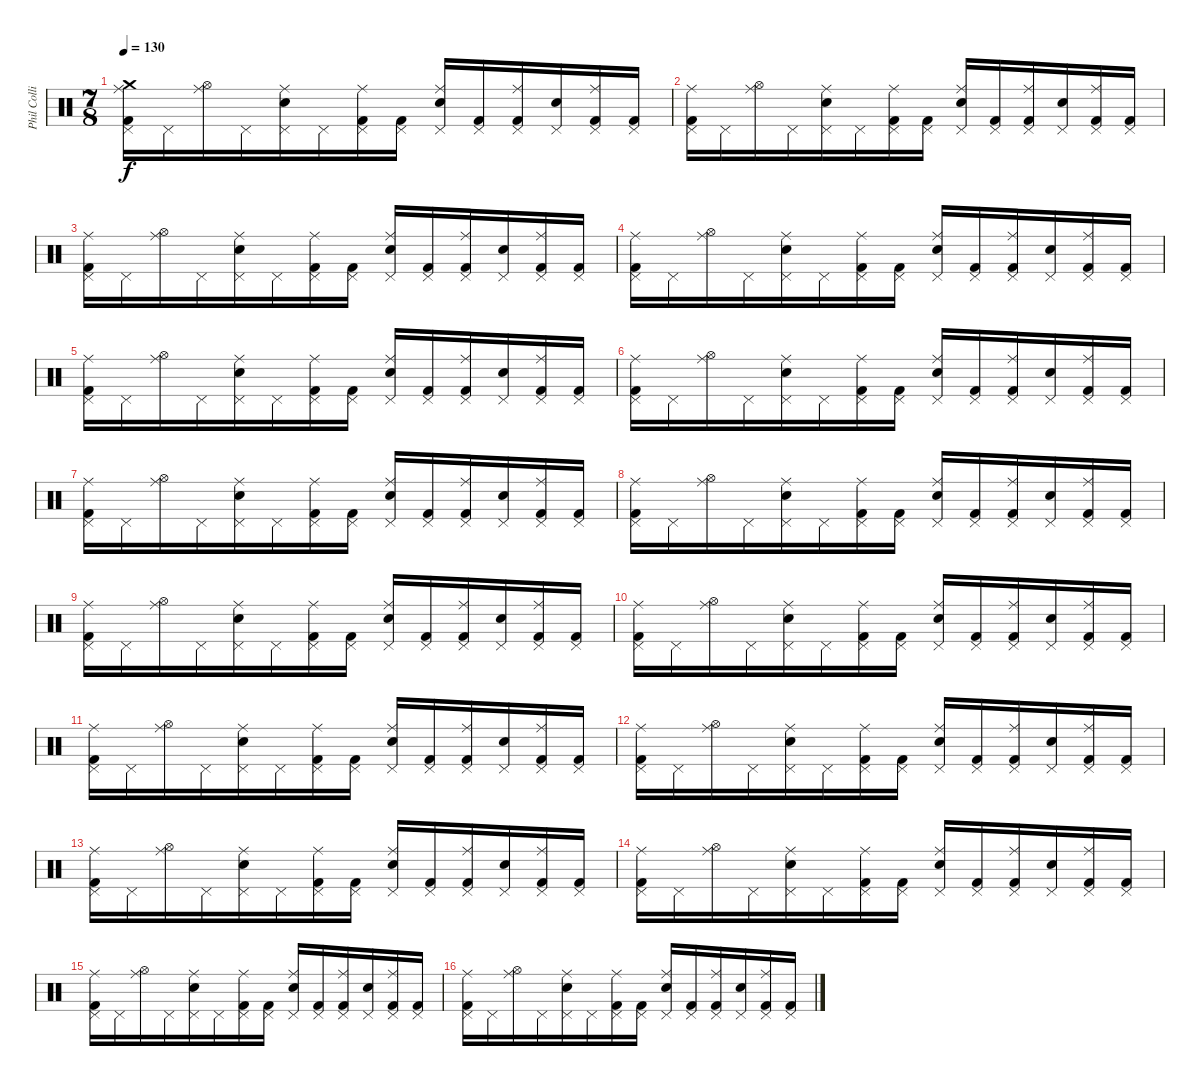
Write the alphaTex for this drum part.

\track ("Phil Collins (drums)" "Phil Colli") {instrument percussion}
\staff {score}
\articulation defaults
\ts (7 8)
\tempo 130
\clef neutral
\ks c
("Crash medium (hit)" "Ride (middle)" "Pedal Hi-Hat (hit)" "Kick (hit) 2").16{dy f} "Pedal Hi-Hat (hit)".16 ("Ride (middle)" "Hi-Hat (open)").16 "Pedal Hi-Hat (hit)".16 ("Ride (middle)" "Pedal Hi-Hat (hit)" "Electric Snare (hit)").16 "Pedal Hi-Hat (hit)".16 ("Ride (middle)" "Pedal Hi-Hat (hit)" "Kick (hit) 2").16 ("Pedal Hi-Hat (hit)" "Kick (hit) 2").16 ("Ride (middle)" "Pedal Hi-Hat (hit)" "Electric Snare (hit)").16 ("Pedal Hi-Hat (hit)" "Kick (hit) 2").16 ("Ride (middle)" "Pedal Hi-Hat (hit)" "Kick (hit) 2").16 ("Pedal Hi-Hat (hit)" "Electric Snare (hit)").16 ("Ride (middle)" "Pedal Hi-Hat (hit)" "Kick (hit) 2").16 ("Pedal Hi-Hat (hit)" "Kick (hit) 2").16 |
("Ride (middle)" "Pedal Hi-Hat (hit)" "Kick (hit) 2").16 "Pedal Hi-Hat (hit)".16 ("Ride (middle)" "Hi-Hat (open)").16 "Pedal Hi-Hat (hit)".16 ("Ride (middle)" "Pedal Hi-Hat (hit)" "Electric Snare (hit)").16 "Pedal Hi-Hat (hit)".16 ("Ride (middle)" "Pedal Hi-Hat (hit)" "Kick (hit) 2").16 ("Pedal Hi-Hat (hit)" "Kick (hit) 2").16 ("Ride (middle)" "Pedal Hi-Hat (hit)" "Electric Snare (hit)").16 ("Pedal Hi-Hat (hit)" "Kick (hit) 2").16 ("Ride (middle)" "Pedal Hi-Hat (hit)" "Kick (hit) 2").16 ("Pedal Hi-Hat (hit)" "Electric Snare (hit)").16 ("Ride (middle)" "Pedal Hi-Hat (hit)" "Kick (hit) 2").16 ("Pedal Hi-Hat (hit)" "Kick (hit) 2").16 |
("Ride (middle)" "Pedal Hi-Hat (hit)" "Kick (hit) 2").16 "Pedal Hi-Hat (hit)".16 ("Ride (middle)" "Hi-Hat (open)").16 "Pedal Hi-Hat (hit)".16 ("Ride (middle)" "Pedal Hi-Hat (hit)" "Electric Snare (hit)").16 "Pedal Hi-Hat (hit)".16 ("Ride (middle)" "Pedal Hi-Hat (hit)" "Kick (hit) 2").16 ("Pedal Hi-Hat (hit)" "Kick (hit) 2").16 ("Ride (middle)" "Pedal Hi-Hat (hit)" "Electric Snare (hit)").16 ("Pedal Hi-Hat (hit)" "Kick (hit) 2").16 ("Ride (middle)" "Pedal Hi-Hat (hit)" "Kick (hit) 2").16 ("Pedal Hi-Hat (hit)" "Electric Snare (hit)").16 ("Ride (middle)" "Pedal Hi-Hat (hit)" "Kick (hit) 2").16 ("Pedal Hi-Hat (hit)" "Kick (hit) 2").16 |
("Ride (middle)" "Pedal Hi-Hat (hit)" "Kick (hit) 2").16 "Pedal Hi-Hat (hit)".16 ("Ride (middle)" "Hi-Hat (open)").16 "Pedal Hi-Hat (hit)".16 ("Ride (middle)" "Pedal Hi-Hat (hit)" "Electric Snare (hit)").16 "Pedal Hi-Hat (hit)".16 ("Ride (middle)" "Pedal Hi-Hat (hit)" "Kick (hit) 2").16 ("Pedal Hi-Hat (hit)" "Kick (hit) 2").16 ("Ride (middle)" "Pedal Hi-Hat (hit)" "Electric Snare (hit)").16 ("Pedal Hi-Hat (hit)" "Kick (hit) 2").16 ("Ride (middle)" "Pedal Hi-Hat (hit)" "Kick (hit) 2").16 ("Pedal Hi-Hat (hit)" "Electric Snare (hit)").16 ("Ride (middle)" "Pedal Hi-Hat (hit)" "Kick (hit) 2").16 ("Pedal Hi-Hat (hit)" "Kick (hit) 2").16 |
("Ride (middle)" "Pedal Hi-Hat (hit)" "Kick (hit) 2").16 "Pedal Hi-Hat (hit)".16 ("Ride (middle)" "Hi-Hat (open)").16 "Pedal Hi-Hat (hit)".16 ("Ride (middle)" "Pedal Hi-Hat (hit)" "Electric Snare (hit)").16 "Pedal Hi-Hat (hit)".16 ("Ride (middle)" "Pedal Hi-Hat (hit)" "Kick (hit) 2").16 ("Pedal Hi-Hat (hit)" "Kick (hit) 2").16 ("Ride (middle)" "Pedal Hi-Hat (hit)" "Electric Snare (hit)").16 ("Pedal Hi-Hat (hit)" "Kick (hit) 2").16 ("Ride (middle)" "Pedal Hi-Hat (hit)" "Kick (hit) 2").16 ("Pedal Hi-Hat (hit)" "Electric Snare (hit)").16 ("Ride (middle)" "Pedal Hi-Hat (hit)" "Kick (hit) 2").16 ("Pedal Hi-Hat (hit)" "Kick (hit) 2").16 |
("Ride (middle)" "Pedal Hi-Hat (hit)" "Kick (hit) 2").16 "Pedal Hi-Hat (hit)".16 ("Ride (middle)" "Hi-Hat (open)").16 "Pedal Hi-Hat (hit)".16 ("Ride (middle)" "Pedal Hi-Hat (hit)" "Electric Snare (hit)").16 "Pedal Hi-Hat (hit)".16 ("Ride (middle)" "Pedal Hi-Hat (hit)" "Kick (hit) 2").16 ("Pedal Hi-Hat (hit)" "Kick (hit) 2").16 ("Ride (middle)" "Pedal Hi-Hat (hit)" "Electric Snare (hit)").16 ("Pedal Hi-Hat (hit)" "Kick (hit) 2").16 ("Ride (middle)" "Pedal Hi-Hat (hit)" "Kick (hit) 2").16 ("Pedal Hi-Hat (hit)" "Electric Snare (hit)").16 ("Ride (middle)" "Pedal Hi-Hat (hit)" "Kick (hit) 2").16 ("Pedal Hi-Hat (hit)" "Kick (hit) 2").16 |
("Ride (middle)" "Pedal Hi-Hat (hit)" "Kick (hit) 2").16 "Pedal Hi-Hat (hit)".16 ("Ride (middle)" "Hi-Hat (open)").16 "Pedal Hi-Hat (hit)".16 ("Ride (middle)" "Pedal Hi-Hat (hit)" "Electric Snare (hit)").16 "Pedal Hi-Hat (hit)".16 ("Ride (middle)" "Pedal Hi-Hat (hit)" "Kick (hit) 2").16 ("Pedal Hi-Hat (hit)" "Kick (hit) 2").16 ("Ride (middle)" "Pedal Hi-Hat (hit)" "Electric Snare (hit)").16 ("Pedal Hi-Hat (hit)" "Kick (hit) 2").16 ("Ride (middle)" "Pedal Hi-Hat (hit)" "Kick (hit) 2").16 ("Pedal Hi-Hat (hit)" "Electric Snare (hit)").16 ("Ride (middle)" "Pedal Hi-Hat (hit)" "Kick (hit) 2").16 ("Pedal Hi-Hat (hit)" "Kick (hit) 2").16 |
("Ride (middle)" "Pedal Hi-Hat (hit)" "Kick (hit) 2").16 "Pedal Hi-Hat (hit)".16 ("Ride (middle)" "Hi-Hat (open)").16 "Pedal Hi-Hat (hit)".16 ("Ride (middle)" "Pedal Hi-Hat (hit)" "Electric Snare (hit)").16 "Pedal Hi-Hat (hit)".16 ("Ride (middle)" "Pedal Hi-Hat (hit)" "Kick (hit) 2").16 ("Pedal Hi-Hat (hit)" "Kick (hit) 2").16 ("Ride (middle)" "Pedal Hi-Hat (hit)" "Electric Snare (hit)").16 ("Pedal Hi-Hat (hit)" "Kick (hit) 2").16 ("Ride (middle)" "Pedal Hi-Hat (hit)" "Kick (hit) 2").16 ("Pedal Hi-Hat (hit)" "Electric Snare (hit)").16 ("Ride (middle)" "Pedal Hi-Hat (hit)" "Kick (hit) 2").16 ("Pedal Hi-Hat (hit)" "Kick (hit) 2").16 |
("Ride (middle)" "Pedal Hi-Hat (hit)" "Kick (hit) 2").16 "Pedal Hi-Hat (hit)".16 ("Ride (middle)" "Hi-Hat (open)").16 "Pedal Hi-Hat (hit)".16 ("Ride (middle)" "Pedal Hi-Hat (hit)" "Electric Snare (hit)").16 "Pedal Hi-Hat (hit)".16 ("Ride (middle)" "Pedal Hi-Hat (hit)" "Kick (hit) 2").16 ("Pedal Hi-Hat (hit)" "Kick (hit) 2").16 ("Ride (middle)" "Pedal Hi-Hat (hit)" "Electric Snare (hit)").16 ("Pedal Hi-Hat (hit)" "Kick (hit) 2").16 ("Ride (middle)" "Pedal Hi-Hat (hit)" "Kick (hit) 2").16 ("Pedal Hi-Hat (hit)" "Electric Snare (hit)").16 ("Ride (middle)" "Pedal Hi-Hat (hit)" "Kick (hit) 2").16 ("Pedal Hi-Hat (hit)" "Kick (hit) 2").16 |
("Ride (middle)" "Pedal Hi-Hat (hit)" "Kick (hit) 2").16 "Pedal Hi-Hat (hit)".16 ("Ride (middle)" "Hi-Hat (open)").16 "Pedal Hi-Hat (hit)".16 ("Ride (middle)" "Pedal Hi-Hat (hit)" "Electric Snare (hit)").16 "Pedal Hi-Hat (hit)".16 ("Ride (middle)" "Pedal Hi-Hat (hit)" "Kick (hit) 2").16 ("Pedal Hi-Hat (hit)" "Kick (hit) 2").16 ("Ride (middle)" "Pedal Hi-Hat (hit)" "Electric Snare (hit)").16 ("Pedal Hi-Hat (hit)" "Kick (hit) 2").16 ("Ride (middle)" "Pedal Hi-Hat (hit)" "Kick (hit) 2").16 ("Pedal Hi-Hat (hit)" "Electric Snare (hit)").16 ("Ride (middle)" "Pedal Hi-Hat (hit)" "Kick (hit) 2").16 ("Pedal Hi-Hat (hit)" "Kick (hit) 2").16 |
("Ride (middle)" "Pedal Hi-Hat (hit)" "Kick (hit) 2").16 "Pedal Hi-Hat (hit)".16 ("Ride (middle)" "Hi-Hat (open)").16 "Pedal Hi-Hat (hit)".16 ("Ride (middle)" "Pedal Hi-Hat (hit)" "Electric Snare (hit)").16 "Pedal Hi-Hat (hit)".16 ("Ride (middle)" "Pedal Hi-Hat (hit)" "Kick (hit) 2").16 ("Pedal Hi-Hat (hit)" "Kick (hit) 2").16 ("Ride (middle)" "Pedal Hi-Hat (hit)" "Electric Snare (hit)").16 ("Pedal Hi-Hat (hit)" "Kick (hit) 2").16 ("Ride (middle)" "Pedal Hi-Hat (hit)" "Kick (hit) 2").16 ("Pedal Hi-Hat (hit)" "Electric Snare (hit)").16 ("Ride (middle)" "Pedal Hi-Hat (hit)" "Kick (hit) 2").16 ("Pedal Hi-Hat (hit)" "Kick (hit) 2").16 |
("Ride (middle)" "Pedal Hi-Hat (hit)" "Kick (hit) 2").16 "Pedal Hi-Hat (hit)".16 ("Ride (middle)" "Hi-Hat (open)").16 "Pedal Hi-Hat (hit)".16 ("Ride (middle)" "Pedal Hi-Hat (hit)" "Electric Snare (hit)").16 "Pedal Hi-Hat (hit)".16 ("Ride (middle)" "Pedal Hi-Hat (hit)" "Kick (hit) 2").16 ("Pedal Hi-Hat (hit)" "Kick (hit) 2").16 ("Ride (middle)" "Pedal Hi-Hat (hit)" "Electric Snare (hit)").16 ("Pedal Hi-Hat (hit)" "Kick (hit) 2").16 ("Ride (middle)" "Pedal Hi-Hat (hit)" "Kick (hit) 2").16 ("Pedal Hi-Hat (hit)" "Electric Snare (hit)").16 ("Ride (middle)" "Pedal Hi-Hat (hit)" "Kick (hit) 2").16 ("Pedal Hi-Hat (hit)" "Kick (hit) 2").16 |
("Ride (middle)" "Pedal Hi-Hat (hit)" "Kick (hit) 2").16 "Pedal Hi-Hat (hit)".16 ("Ride (middle)" "Hi-Hat (open)").16 "Pedal Hi-Hat (hit)".16 ("Ride (middle)" "Pedal Hi-Hat (hit)" "Electric Snare (hit)").16 "Pedal Hi-Hat (hit)".16 ("Ride (middle)" "Pedal Hi-Hat (hit)" "Kick (hit) 2").16 ("Pedal Hi-Hat (hit)" "Kick (hit) 2").16 ("Ride (middle)" "Pedal Hi-Hat (hit)" "Electric Snare (hit)").16 ("Pedal Hi-Hat (hit)" "Kick (hit) 2").16 ("Ride (middle)" "Pedal Hi-Hat (hit)" "Kick (hit) 2").16 ("Pedal Hi-Hat (hit)" "Electric Snare (hit)").16 ("Ride (middle)" "Pedal Hi-Hat (hit)" "Kick (hit) 2").16 ("Pedal Hi-Hat (hit)" "Kick (hit) 2").16 |
("Ride (middle)" "Pedal Hi-Hat (hit)" "Kick (hit) 2").16 "Pedal Hi-Hat (hit)".16 ("Ride (middle)" "Hi-Hat (open)").16 "Pedal Hi-Hat (hit)".16 ("Ride (middle)" "Pedal Hi-Hat (hit)" "Electric Snare (hit)").16 "Pedal Hi-Hat (hit)".16 ("Ride (middle)" "Pedal Hi-Hat (hit)" "Kick (hit) 2").16 ("Pedal Hi-Hat (hit)" "Kick (hit) 2").16 ("Ride (middle)" "Pedal Hi-Hat (hit)" "Electric Snare (hit)").16 ("Pedal Hi-Hat (hit)" "Kick (hit) 2").16 ("Ride (middle)" "Pedal Hi-Hat (hit)" "Kick (hit) 2").16 ("Pedal Hi-Hat (hit)" "Electric Snare (hit)").16 ("Ride (middle)" "Pedal Hi-Hat (hit)" "Kick (hit) 2").16 ("Pedal Hi-Hat (hit)" "Kick (hit) 2").16 |
("Ride (middle)" "Pedal Hi-Hat (hit)" "Kick (hit) 2").16 "Pedal Hi-Hat (hit)".16 ("Ride (middle)" "Hi-Hat (open)").16 "Pedal Hi-Hat (hit)".16 ("Ride (middle)" "Pedal Hi-Hat (hit)" "Electric Snare (hit)").16 "Pedal Hi-Hat (hit)".16 ("Ride (middle)" "Pedal Hi-Hat (hit)" "Kick (hit) 2").16 ("Pedal Hi-Hat (hit)" "Kick (hit) 2").16 ("Ride (middle)" "Pedal Hi-Hat (hit)" "Electric Snare (hit)").16 ("Pedal Hi-Hat (hit)" "Kick (hit) 2").16 ("Ride (middle)" "Pedal Hi-Hat (hit)" "Kick (hit) 2").16 ("Pedal Hi-Hat (hit)" "Electric Snare (hit)").16 ("Ride (middle)" "Pedal Hi-Hat (hit)" "Kick (hit) 2").16 ("Pedal Hi-Hat (hit)" "Kick (hit) 2").16 |
("Ride (middle)" "Pedal Hi-Hat (hit)" "Kick (hit) 2").16 "Pedal Hi-Hat (hit)".16 ("Ride (middle)" "Hi-Hat (open)").16 "Pedal Hi-Hat (hit)".16 ("Ride (middle)" "Pedal Hi-Hat (hit)" "Electric Snare (hit)").16 "Pedal Hi-Hat (hit)".16 ("Ride (middle)" "Pedal Hi-Hat (hit)" "Kick (hit) 2").16 ("Pedal Hi-Hat (hit)" "Kick (hit) 2").16 ("Ride (middle)" "Pedal Hi-Hat (hit)" "Electric Snare (hit)").16 ("Pedal Hi-Hat (hit)" "Kick (hit) 2").16 ("Ride (middle)" "Pedal Hi-Hat (hit)" "Kick (hit) 2").16 ("Pedal Hi-Hat (hit)" "Electric Snare (hit)").16 ("Ride (middle)" "Pedal Hi-Hat (hit)" "Kick (hit) 2").16 ("Pedal Hi-Hat (hit)" "Kick (hit) 2").16
